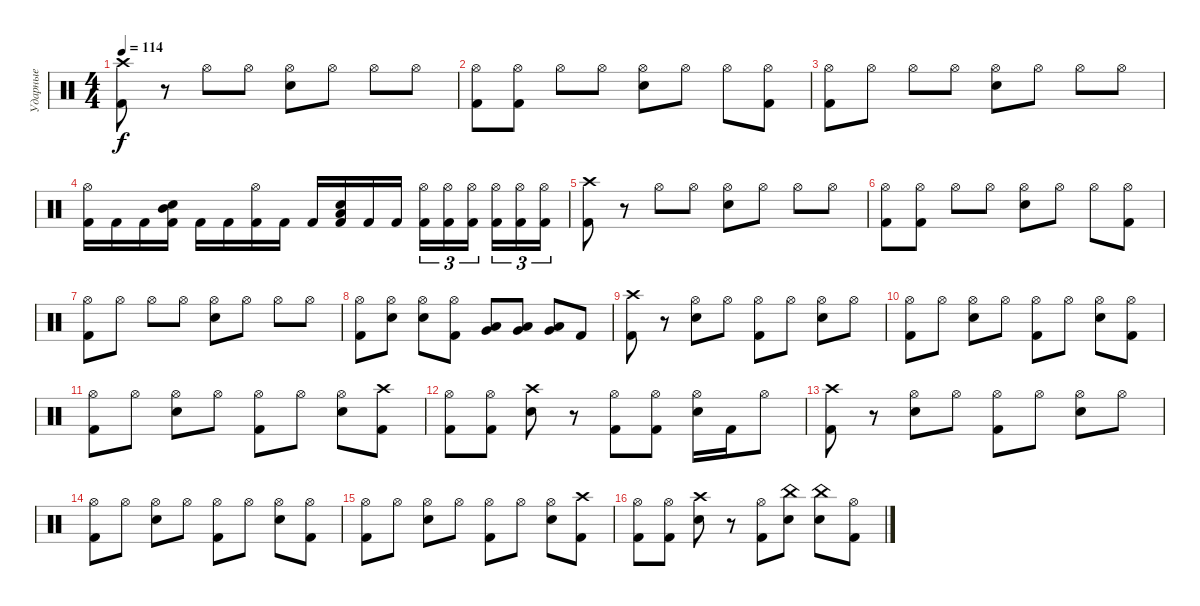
\track ("Ударные" "Ударные") {instrument percussion}
\staff {score}
\articulation defaults
\ts (4 4)
\tempo 114
\clef neutral
\ks c
("Crash high (hit)" "Kick (hit) 2").8{dy f} r.8 "Hi-Hat (open)".8 "Hi-Hat (open)".8 ("Hi-Hat (open)" "Electric Snare (hit)").8 "Hi-Hat (open)".8 "Hi-Hat (open)".8 "Hi-Hat (open)".8 |
("Hi-Hat (open)" "Kick (hit) 2").8 ("Hi-Hat (open)" "Kick (hit) 2").8 "Hi-Hat (open)".8 "Hi-Hat (open)".8 ("Hi-Hat (open)" "Electric Snare (hit)").8 "Hi-Hat (open)".8 "Hi-Hat (open)".8 ("Hi-Hat (open)" "Kick (hit) 2").8 |
("Hi-Hat (open)" "Kick (hit) 2").8 "Hi-Hat (open)".8 "Hi-Hat (open)".8 "Hi-Hat (open)".8 ("Hi-Hat (open)" "Electric Snare (hit)").8 "Hi-Hat (open)".8 "Hi-Hat (open)".8 "Hi-Hat (open)".8 |
("Hi-Hat (open)" "Kick (hit) 2").16 "Kick (hit) 2".16 "Kick (hit) 2".16 ("Mid Tom (hit)" "Electric Snare (hit)" "Kick (hit) 2").16 "Kick (hit) 2".16 "Kick (hit) 2".16 ("Hi-Hat (open)" "Kick (hit) 2").16 "Kick (hit) 2".16 "Kick (hit) 2".16 ("Low Tom (hit)" "Electric Snare (hit)" "Kick (hit) 2").16 "Kick (hit) 2".16 "Kick (hit) 2".16 ("Hi-Hat (open)" "Kick (hit) 2").16{tu (3 2)} ("Hi-Hat (open)" "Kick (hit) 2").16{tu (3 2)} ("Hi-Hat (open)" "Kick (hit) 2").16{tu (3 2) beam splitsecondary} ("Hi-Hat (open)" "Kick (hit) 2").16{tu (3 2)} ("Hi-Hat (open)" "Kick (hit) 2").16{tu (3 2)} ("Hi-Hat (open)" "Kick (hit) 2").16{tu (3 2)} |
("Crash high (hit)" "Kick (hit) 2").8 r.8 "Hi-Hat (open)".8 "Hi-Hat (open)".8 ("Hi-Hat (open)" "Electric Snare (hit)").8 "Hi-Hat (open)".8 "Hi-Hat (open)".8 "Hi-Hat (open)".8 |
("Hi-Hat (open)" "Kick (hit) 2").8 ("Hi-Hat (open)" "Kick (hit) 2").8 "Hi-Hat (open)".8 "Hi-Hat (open)".8 ("Hi-Hat (open)" "Electric Snare (hit)").8 "Hi-Hat (open)".8 "Hi-Hat (open)".8 ("Hi-Hat (open)" "Kick (hit) 2").8 |
("Hi-Hat (open)" "Kick (hit) 2").8 "Hi-Hat (open)".8 "Hi-Hat (open)".8 "Hi-Hat (open)".8 ("Hi-Hat (open)" "Electric Snare (hit)").8 "Hi-Hat (open)".8 "Hi-Hat (open)".8 "Hi-Hat (open)".8 |
("Hi-Hat (open)" "Kick (hit) 2").8 ("Hi-Hat (open)" "Electric Snare (hit)").8 ("Hi-Hat (open)" "Electric Snare (hit)").8 ("Hi-Hat (open)" "Kick (hit) 2").8 ("Very Low Tom (hit)" "Low Floor Tom (hit)").8 ("Very Low Tom (hit)" "Low Floor Tom (hit)").8 ("Very Low Tom (hit)" "Low Floor Tom (hit)").8 "Kick (hit) 2".8 |
("Crash high (hit)" "Kick (hit) 2").8 r.8 ("Hi-Hat (open)" "Electric Snare (hit)").8 "Hi-Hat (open)".8 ("Hi-Hat (open)" "Kick (hit) 2").8 "Hi-Hat (open)".8 ("Hi-Hat (open)" "Electric Snare (hit)").8 "Hi-Hat (open)".8 |
("Hi-Hat (open)" "Kick (hit) 2").8 "Hi-Hat (open)".8 ("Hi-Hat (open)" "Electric Snare (hit)").8 "Hi-Hat (open)".8 ("Hi-Hat (open)" "Kick (hit) 2").8 "Hi-Hat (open)".8 ("Hi-Hat (open)" "Electric Snare (hit)").8 ("Hi-Hat (open)" "Kick (hit) 2").8 |
("Hi-Hat (open)" "Kick (hit) 2").8 "Hi-Hat (open)".8 ("Hi-Hat (open)" "Electric Snare (hit)").8 "Hi-Hat (open)".8 ("Hi-Hat (open)" "Kick (hit) 2").8 "Hi-Hat (open)".8 ("Hi-Hat (open)" "Electric Snare (hit)").8 ("Crash high (hit)" "Kick (hit) 2").8 |
("Hi-Hat (open)" "Kick (hit) 2").8 ("Hi-Hat (open)" "Kick (hit) 2").8 ("Crash high (hit)" "Electric Snare (hit)").8 r.8 ("Hi-Hat (open)" "Kick (hit) 2").8 ("Hi-Hat (open)" "Kick (hit) 2").8 ("Hi-Hat (open)" "Electric Snare (hit)").16 "Kick (hit) 2".16 "Hi-Hat (open)".8 |
("Crash high (hit)" "Kick (hit) 2").8 r.8 ("Hi-Hat (open)" "Electric Snare (hit)").8 "Hi-Hat (open)".8 ("Hi-Hat (open)" "Kick (hit) 2").8 "Hi-Hat (open)".8 ("Hi-Hat (open)" "Electric Snare (hit)").8 "Hi-Hat (open)".8 |
("Hi-Hat (open)" "Kick (hit) 2").8 "Hi-Hat (open)".8 ("Hi-Hat (open)" "Electric Snare (hit)").8 "Hi-Hat (open)".8 ("Hi-Hat (open)" "Kick (hit) 2").8 "Hi-Hat (open)".8 ("Hi-Hat (open)" "Electric Snare (hit)").8 ("Hi-Hat (open)" "Kick (hit) 2").8 |
("Hi-Hat (open)" "Kick (hit) 2").8 "Hi-Hat (open)".8 ("Hi-Hat (open)" "Electric Snare (hit)").8 "Hi-Hat (open)".8 ("Hi-Hat (open)" "Kick (hit) 2").8 "Hi-Hat (open)".8 ("Hi-Hat (open)" "Electric Snare (hit)").8 ("Crash high (hit)" "Kick (hit) 2").8 |
("Hi-Hat (open)" "Kick (hit) 2").8 ("Hi-Hat (open)" "Kick (hit) 2").8 ("Crash high (hit)" "Electric Snare (hit)").8 r.8 ("Hi-Hat (open)" "Kick (hit) 2").8 ("China (hit)" "Electric Snare (hit)").8 ("China (hit)" "Electric Snare (hit)").8 ("Hi-Hat (open)" "Kick (hit) 2").8
